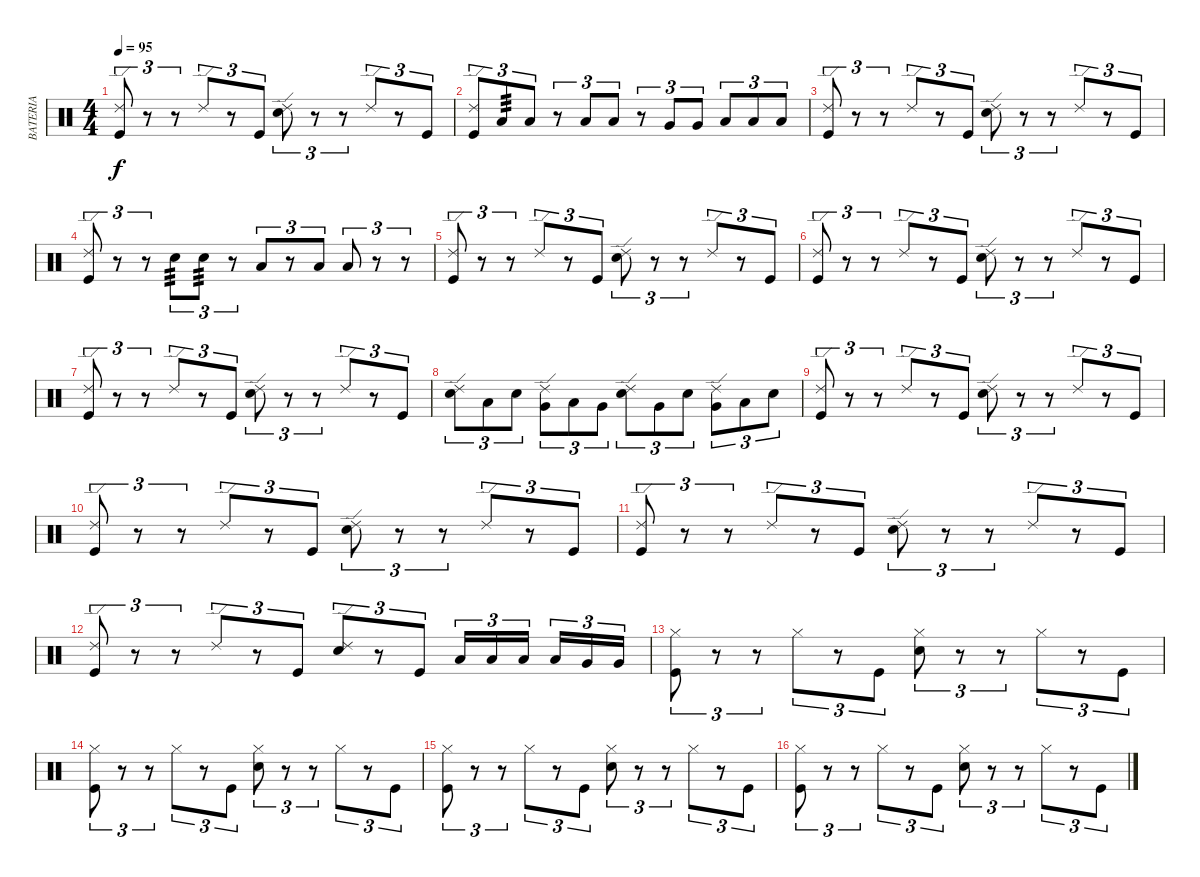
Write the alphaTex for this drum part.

\track ("BATERIA" "BATERIA") {instrument percussion}
\staff {score}
\articulation defaults
\ts (4 4)
\tempo 95
\clef neutral
\ks c
("Ride (edge) 2" "Kick (hit)").8{tu (3 2) dy f} r.8{tu (3 2)} r.8{tu (3 2)} "Ride (edge) 2".8{tu (3 2)} r.8{tu (3 2)} "Kick (hit)".8{tu (3 2)} ("Ride (edge) 2" "Snare (hit) 2").8{tu (3 2)} r.8{tu (3 2)} r.8{tu (3 2)} "Ride (edge) 2".8{tu (3 2)} r.8{tu (3 2)} "Kick (hit)".8{tu (3 2)} |
("Ride (edge) 2" "Kick (hit)").8{tu (3 2)} "Low Tom (hit)".8{tu (3 2) tp 3} "Low Tom (hit)".8{tu (3 2)} r.8{tu (3 2)} "Low Floor Tom (hit)".8{tu (3 2)} "Low Floor Tom (hit)".8{tu (3 2)} r.8{tu (3 2)} "Very Low Tom (hit)".8{tu (3 2)} "Very Low Tom (hit)".8{tu (3 2)} "Low Floor Tom (hit)".8{tu (3 2)} "Low Floor Tom (hit)".8{tu (3 2)} "Low Floor Tom (hit)".8{tu (3 2)} |
("Ride (edge) 2" "Kick (hit)").8{tu (3 2)} r.8{tu (3 2)} r.8{tu (3 2)} "Ride (edge) 2".8{tu (3 2)} r.8{tu (3 2)} "Kick (hit)".8{tu (3 2)} ("Ride (edge) 2" "Snare (hit) 2").8{tu (3 2)} r.8{tu (3 2)} r.8{tu (3 2)} "Ride (edge) 2".8{tu (3 2)} r.8{tu (3 2)} "Kick (hit)".8{tu (3 2)} |
("Ride (edge) 2" "Kick (hit)").8{tu (3 2)} r.8{tu (3 2)} r.8{tu (3 2)} "Electric Snare (hit)".8{tu (3 2) tp 3} "Electric Snare (hit)".8{tu (3 2) tp 3} r.8{tu (3 2)} "Low Floor Tom (hit)".8{tu (3 2)} r.8{tu (3 2)} "Low Tom (hit)".8{tu (3 2)} "Low Floor Tom (hit)".8{tu (3 2)} r.8{tu (3 2)} r.8{tu (3 2)} |
("Ride (edge) 2" "Kick (hit)").8{tu (3 2)} r.8{tu (3 2)} r.8{tu (3 2)} "Ride (edge) 2".8{tu (3 2)} r.8{tu (3 2)} "Kick (hit)".8{tu (3 2)} ("Ride (edge) 2" "Snare (hit) 2").8{tu (3 2)} r.8{tu (3 2)} r.8{tu (3 2)} "Ride (edge) 2".8{tu (3 2)} r.8{tu (3 2)} "Kick (hit)".8{tu (3 2)} |
("Ride (edge) 2" "Kick (hit)").8{tu (3 2)} r.8{tu (3 2)} r.8{tu (3 2)} "Ride (edge) 2".8{tu (3 2)} r.8{tu (3 2)} "Kick (hit)".8{tu (3 2)} ("Ride (edge) 2" "Snare (hit) 2").8{tu (3 2)} r.8{tu (3 2)} r.8{tu (3 2)} "Ride (edge) 2".8{tu (3 2)} r.8{tu (3 2)} "Kick (hit)".8{tu (3 2)} |
("Ride (edge) 2" "Kick (hit)").8{tu (3 2)} r.8{tu (3 2)} r.8{tu (3 2)} "Ride (edge) 2".8{tu (3 2)} r.8{tu (3 2)} "Kick (hit)".8{tu (3 2)} ("Ride (edge) 2" "Snare (hit) 2").8{tu (3 2)} r.8{tu (3 2)} r.8{tu (3 2)} "Ride (edge) 2".8{tu (3 2)} r.8{tu (3 2)} "Kick (hit)".8{tu (3 2)} |
("Ride (edge) 2" "Snare (hit) 2").8{tu (3 2)} "Low Tom (hit)".8{tu (3 2)} "Snare (hit) 2".8{tu (3 2)} ("Ride (edge) 2" "Very Low Tom (hit)").8{tu (3 2)} "Low Tom (hit)".8{tu (3 2)} "Very Low Tom (hit)".8{tu (3 2)} ("Ride (edge) 2" "Snare (hit) 2").8{tu (3 2)} "Very Low Tom (hit)".8{tu (3 2)} "Snare (hit) 2".8{tu (3 2)} ("Ride (edge) 2" "Very Low Tom (hit)").8{tu (3 2)} "Low Floor Tom (hit)".8{tu (3 2)} "Snare (hit) 2".8{tu (3 2)} |
("Ride (edge) 2" "Kick (hit)").8{tu (3 2)} r.8{tu (3 2)} r.8{tu (3 2)} "Ride (edge) 2".8{tu (3 2)} r.8{tu (3 2)} "Kick (hit)".8{tu (3 2)} ("Ride (edge) 2" "Snare (hit) 2").8{tu (3 2)} r.8{tu (3 2)} r.8{tu (3 2)} "Ride (edge) 2".8{tu (3 2)} r.8{tu (3 2)} "Kick (hit)".8{tu (3 2)} |
("Ride (edge) 2" "Kick (hit)").8{tu (3 2)} r.8{tu (3 2)} r.8{tu (3 2)} "Ride (edge) 2".8{tu (3 2)} r.8{tu (3 2)} "Kick (hit)".8{tu (3 2)} ("Ride (edge) 2" "Snare (hit) 2").8{tu (3 2)} r.8{tu (3 2)} r.8{tu (3 2)} "Ride (edge) 2".8{tu (3 2)} r.8{tu (3 2)} "Kick (hit)".8{tu (3 2)} |
("Ride (edge) 2" "Kick (hit)").8{tu (3 2)} r.8{tu (3 2)} r.8{tu (3 2)} "Ride (edge) 2".8{tu (3 2)} r.8{tu (3 2)} "Kick (hit)".8{tu (3 2)} ("Ride (edge) 2" "Snare (hit) 2").8{tu (3 2)} r.8{tu (3 2)} r.8{tu (3 2)} "Ride (edge) 2".8{tu (3 2)} r.8{tu (3 2)} "Kick (hit)".8{tu (3 2)} |
("Ride (edge) 2" "Kick (hit)").8{tu (3 2)} r.8{tu (3 2)} r.8{tu (3 2)} "Ride (edge) 2".8{tu (3 2)} r.8{tu (3 2)} "Kick (hit)".8{tu (3 2)} ("Ride (edge) 2" "Snare (hit) 2").8{tu (3 2)} r.8{tu (3 2)} "Kick (hit)".8{tu (3 2)} "Low Tom (hit)".16{tu (3 2)} "Low Tom (hit)".16{tu (3 2)} "Low Tom (hit)".16{tu (3 2) beam splitsecondary} "Low Tom (hit)".16{tu (3 2)} "Very Low Tom (hit)".16{tu (3 2)} "Very Low Tom (hit)".16{tu (3 2)} |
("Hi-Hat (closed)" "Kick (hit)").8{tu (3 2)} r.8{tu (3 2)} r.8{tu (3 2)} "Hi-Hat (closed)".8{tu (3 2)} r.8{tu (3 2)} "Kick (hit)".8{tu (3 2)} ("Hi-Hat (closed)" "Snare (hit) 2").8{tu (3 2)} r.8{tu (3 2)} r.8{tu (3 2)} "Hi-Hat (closed)".8{tu (3 2)} r.8{tu (3 2)} "Kick (hit)".8{tu (3 2)} |
("Hi-Hat (closed)" "Kick (hit)").8{tu (3 2)} r.8{tu (3 2)} r.8{tu (3 2)} "Hi-Hat (closed)".8{tu (3 2)} r.8{tu (3 2)} "Kick (hit)".8{tu (3 2)} ("Hi-Hat (closed)" "Snare (hit) 2").8{tu (3 2)} r.8{tu (3 2)} r.8{tu (3 2)} "Hi-Hat (closed)".8{tu (3 2)} r.8{tu (3 2)} "Kick (hit)".8{tu (3 2)} |
("Hi-Hat (closed)" "Kick (hit)").8{tu (3 2)} r.8{tu (3 2)} r.8{tu (3 2)} "Hi-Hat (closed)".8{tu (3 2)} r.8{tu (3 2)} "Kick (hit)".8{tu (3 2)} ("Hi-Hat (closed)" "Snare (hit) 2").8{tu (3 2)} r.8{tu (3 2)} r.8{tu (3 2)} "Hi-Hat (closed)".8{tu (3 2)} r.8{tu (3 2)} "Kick (hit)".8{tu (3 2)} |
("Hi-Hat (closed)" "Kick (hit)").8{tu (3 2)} r.8{tu (3 2)} r.8{tu (3 2)} "Hi-Hat (closed)".8{tu (3 2)} r.8{tu (3 2)} "Kick (hit)".8{tu (3 2)} ("Hi-Hat (closed)" "Snare (hit) 2").8{tu (3 2)} r.8{tu (3 2)} r.8{tu (3 2)} "Hi-Hat (closed)".8{tu (3 2)} r.8{tu (3 2)} "Kick (hit)".8{tu (3 2)}
